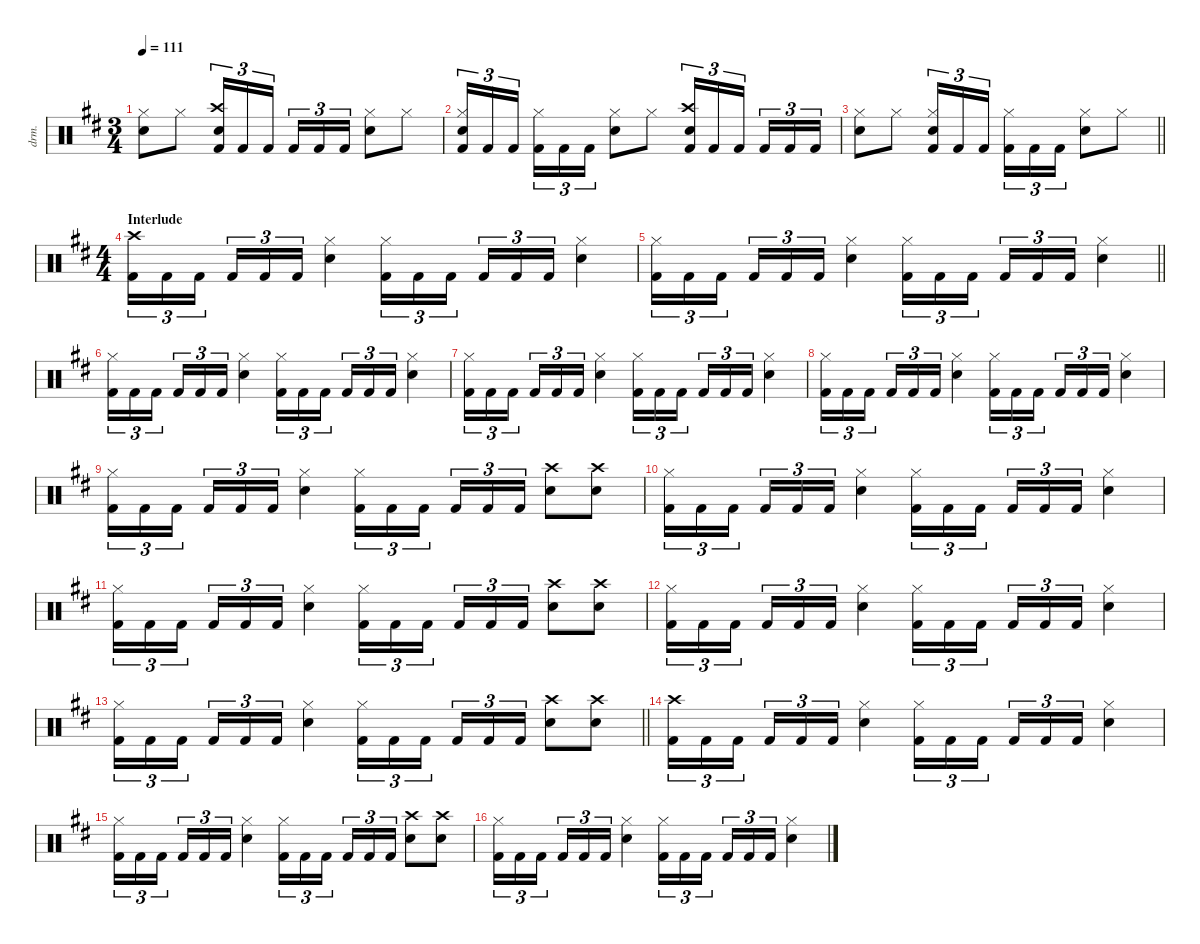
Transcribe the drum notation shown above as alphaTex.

\defaultSystemsLayout 4
\hideDynamics
\bracketExtendMode nobrackets
\otherSystemsTrackNameOrientation horizontal
\track ("Lars Ulrich" "drm.") {defaultSystemsLayout 4 instrument percussion}
\staff {score}
\articulation defaults
\ts (3 4)
\tempo 111
\clef neutral
\ks bminor
("Hi-Hat (closed)"{acc forcenatural} "Snare (hit) 2"{acc forcenatural}).8{dy f beam Down} "Hi-Hat (closed)"{acc forcenatural}.8{beam Down} ("Crash high (hit)"{acc forcenatural} "Snare (hit) 2"{acc forcenatural} "Kick (hit) 2"{acc forcenatural}).16{tu (3 2) beam Up} "Kick (hit) 2"{acc forcenatural}.16{tu (3 2) beam Up} "Kick (hit) 2"{acc forcenatural}.16{tu (3 2) beam Up} "Kick (hit) 2"{acc forcenatural}.16{tu (3 2) beam Up} "Kick (hit) 2"{acc forcenatural}.16{tu (3 2) beam Up} "Kick (hit) 2"{acc forcenatural}.16{tu (3 2) beam Up} ("Hi-Hat (closed)"{acc forcenatural} "Snare (hit) 2"{acc forcenatural}).8{beam Down} "Hi-Hat (closed)"{acc forcenatural}.8{beam Down} |
("Hi-Hat (closed)"{acc forcenatural} "Snare (hit) 2"{acc forcenatural} "Kick (hit) 2"{acc forcenatural}).16{tu (3 2) beam Up} "Kick (hit) 2"{acc forcenatural}.16{tu (3 2) beam Up} "Kick (hit) 2"{acc forcenatural}.16{tu (3 2) beam Up} ("Hi-Hat (closed)"{acc forcenatural} "Kick (hit) 2"{acc forcenatural}).16{tu (3 2) beam Down} "Kick (hit) 2"{acc forcenatural}.16{tu (3 2) beam Down} "Kick (hit) 2"{acc forcenatural}.16{tu (3 2) beam Down} ("Hi-Hat (closed)"{acc forcenatural} "Snare (hit) 2"{acc forcenatural}).8{beam Down} "Hi-Hat (closed)"{acc forcenatural}.8{beam Down} ("Crash high (hit)"{acc forcenatural} "Snare (hit) 2"{acc forcenatural} "Kick (hit) 2"{acc forcenatural}).16{tu (3 2) beam Up} "Kick (hit) 2"{acc forcenatural}.16{tu (3 2) beam Up} "Kick (hit) 2"{acc forcenatural}.16{tu (3 2) beam Up} "Kick (hit) 2"{acc forcenatural}.16{tu (3 2) beam Up} "Kick (hit) 2"{acc forcenatural}.16{tu (3 2) beam Up} "Kick (hit) 2"{acc forcenatural}.16{tu (3 2) beam Up} |
\barLineRight lightlight
("Hi-Hat (closed)"{acc forcenatural} "Snare (hit) 2"{acc forcenatural}).8{beam Down} "Hi-Hat (closed)"{acc forcenatural}.8{beam Down} ("Hi-Hat (closed)"{acc forcenatural} "Snare (hit) 2"{acc forcenatural} "Kick (hit) 2"{acc forcenatural}).16{tu (3 2) beam Up} "Kick (hit) 2"{acc forcenatural}.16{tu (3 2) beam Up} "Kick (hit) 2"{acc forcenatural}.16{tu (3 2) beam Up} ("Hi-Hat (closed)"{acc forcenatural} "Kick (hit) 2"{acc forcenatural}).16{tu (3 2) beam Down} "Kick (hit) 2"{acc forcenatural}.16{tu (3 2) beam Down} "Kick (hit) 2"{acc forcenatural}.16{tu (3 2) beam Down} ("Hi-Hat (closed)"{acc forcenatural} "Snare (hit) 2"{acc forcenatural}).8{beam Down} "Hi-Hat (closed)"{acc forcenatural}.8{beam Down} |
\ts (4 4)
\beaming (8 2 2 2 2)
\section ("" "Interlude")
("Crash high (hit)"{acc forcenatural} "Kick (hit) 2"{acc forcenatural}).16{tu (3 2) beam Down} "Kick (hit) 2"{acc forcenatural}.16{tu (3 2) beam Down} "Kick (hit) 2"{acc forcenatural}.16{tu (3 2) beam Down} "Kick (hit) 2"{acc forcenatural}.16{tu (3 2) beam Up} "Kick (hit) 2"{acc forcenatural}.16{tu (3 2) beam Up} "Kick (hit) 2"{acc forcenatural}.16{tu (3 2) beam Up} ("Hi-Hat (closed)"{acc forcenatural} "Snare (hit) 2"{acc forcenatural}).4{beam Down} ("Hi-Hat (closed)"{acc forcenatural} "Kick (hit) 2"{acc forcenatural}).16{tu (3 2) beam Down} "Kick (hit) 2"{acc forcenatural}.16{tu (3 2) beam Down} "Kick (hit) 2"{acc forcenatural}.16{tu (3 2) beam Down} "Kick (hit) 2"{acc forcenatural}.16{tu (3 2) beam Up} "Kick (hit) 2"{acc forcenatural}.16{tu (3 2) beam Up} "Kick (hit) 2"{acc forcenatural}.16{tu (3 2) beam Up} ("Hi-Hat (closed)"{acc forcenatural} "Snare (hit) 2"{acc forcenatural}).4{beam Down} |
\barLineRight lightlight
("Hi-Hat (closed)"{acc forcenatural} "Kick (hit) 2"{acc forcenatural}).16{tu (3 2) beam Down} "Kick (hit) 2"{acc forcenatural}.16{tu (3 2) beam Down} "Kick (hit) 2"{acc forcenatural}.16{tu (3 2) beam Down} "Kick (hit) 2"{acc forcenatural}.16{tu (3 2) beam Up} "Kick (hit) 2"{acc forcenatural}.16{tu (3 2) beam Up} "Kick (hit) 2"{acc forcenatural}.16{tu (3 2) beam Up} ("Hi-Hat (closed)"{acc forcenatural} "Snare (hit) 2"{acc forcenatural}).4{beam Down} ("Hi-Hat (closed)"{acc forcenatural} "Kick (hit) 2"{acc forcenatural}).16{tu (3 2) beam Down} "Kick (hit) 2"{acc forcenatural}.16{tu (3 2) beam Down} "Kick (hit) 2"{acc forcenatural}.16{tu (3 2) beam Down} "Kick (hit) 2"{acc forcenatural}.16{tu (3 2) beam Up} "Kick (hit) 2"{acc forcenatural}.16{tu (3 2) beam Up} "Kick (hit) 2"{acc forcenatural}.16{tu (3 2) beam Up} ("Hi-Hat (closed)"{acc forcenatural} "Snare (hit) 2"{acc forcenatural}).4{beam Down} |
("Hi-Hat (closed)"{acc forcenatural} "Kick (hit) 2"{acc forcenatural}).16{tu (3 2) beam Down} "Kick (hit) 2"{acc forcenatural}.16{tu (3 2) beam Down} "Kick (hit) 2"{acc forcenatural}.16{tu (3 2) beam Down} "Kick (hit) 2"{acc forcenatural}.16{tu (3 2) beam Up} "Kick (hit) 2"{acc forcenatural}.16{tu (3 2) beam Up} "Kick (hit) 2"{acc forcenatural}.16{tu (3 2) beam Up} ("Hi-Hat (closed)"{acc forcenatural} "Snare (hit) 2"{acc forcenatural}).4{beam Down} ("Hi-Hat (closed)"{acc forcenatural} "Kick (hit) 2"{acc forcenatural}).16{tu (3 2) beam Down} "Kick (hit) 2"{acc forcenatural}.16{tu (3 2) beam Down} "Kick (hit) 2"{acc forcenatural}.16{tu (3 2) beam Down} "Kick (hit) 2"{acc forcenatural}.16{tu (3 2) beam Up} "Kick (hit) 2"{acc forcenatural}.16{tu (3 2) beam Up} "Kick (hit) 2"{acc forcenatural}.16{tu (3 2) beam Up} ("Hi-Hat (closed)"{acc forcenatural} "Snare (hit) 2"{acc forcenatural}).4{beam Down} |
("Hi-Hat (closed)"{acc forcenatural} "Kick (hit) 2"{acc forcenatural}).16{tu (3 2) beam Down} "Kick (hit) 2"{acc forcenatural}.16{tu (3 2) beam Down} "Kick (hit) 2"{acc forcenatural}.16{tu (3 2) beam Down} "Kick (hit) 2"{acc forcenatural}.16{tu (3 2) beam Up} "Kick (hit) 2"{acc forcenatural}.16{tu (3 2) beam Up} "Kick (hit) 2"{acc forcenatural}.16{tu (3 2) beam Up} ("Hi-Hat (closed)"{acc forcenatural} "Snare (hit) 2"{acc forcenatural}).4{beam Down} ("Hi-Hat (closed)"{acc forcenatural} "Kick (hit) 2"{acc forcenatural}).16{tu (3 2) beam Down} "Kick (hit) 2"{acc forcenatural}.16{tu (3 2) beam Down} "Kick (hit) 2"{acc forcenatural}.16{tu (3 2) beam Down} "Kick (hit) 2"{acc forcenatural}.16{tu (3 2) beam Up} "Kick (hit) 2"{acc forcenatural}.16{tu (3 2) beam Up} "Kick (hit) 2"{acc forcenatural}.16{tu (3 2) beam Up} ("Hi-Hat (closed)"{acc forcenatural} "Snare (hit) 2"{acc forcenatural}).4{beam Down} |
("Hi-Hat (closed)"{acc forcenatural} "Kick (hit) 2"{acc forcenatural}).16{tu (3 2) beam Down} "Kick (hit) 2"{acc forcenatural}.16{tu (3 2) beam Down} "Kick (hit) 2"{acc forcenatural}.16{tu (3 2) beam Down} "Kick (hit) 2"{acc forcenatural}.16{tu (3 2) beam Up} "Kick (hit) 2"{acc forcenatural}.16{tu (3 2) beam Up} "Kick (hit) 2"{acc forcenatural}.16{tu (3 2) beam Up} ("Hi-Hat (closed)"{acc forcenatural} "Snare (hit) 2"{acc forcenatural}).4{beam Down} ("Hi-Hat (closed)"{acc forcenatural} "Kick (hit) 2"{acc forcenatural}).16{tu (3 2) beam Down} "Kick (hit) 2"{acc forcenatural}.16{tu (3 2) beam Down} "Kick (hit) 2"{acc forcenatural}.16{tu (3 2) beam Down} "Kick (hit) 2"{acc forcenatural}.16{tu (3 2) beam Up} "Kick (hit) 2"{acc forcenatural}.16{tu (3 2) beam Up} "Kick (hit) 2"{acc forcenatural}.16{tu (3 2) beam Up} ("Hi-Hat (closed)"{acc forcenatural} "Snare (hit) 2"{acc forcenatural}).4{beam Down} |
("Hi-Hat (closed)"{acc forcenatural} "Kick (hit) 2"{acc forcenatural}).16{tu (3 2) beam Down} "Kick (hit) 2"{acc forcenatural}.16{tu (3 2) beam Down} "Kick (hit) 2"{acc forcenatural}.16{tu (3 2) beam Down} "Kick (hit) 2"{acc forcenatural}.16{tu (3 2) beam Up} "Kick (hit) 2"{acc forcenatural}.16{tu (3 2) beam Up} "Kick (hit) 2"{acc forcenatural}.16{tu (3 2) beam Up} ("Hi-Hat (closed)"{acc forcenatural} "Snare (hit) 2"{acc forcenatural}).4{beam Down} ("Hi-Hat (closed)"{acc forcenatural} "Kick (hit) 2"{acc forcenatural}).16{tu (3 2) beam Down} "Kick (hit) 2"{acc forcenatural}.16{tu (3 2) beam Down} "Kick (hit) 2"{acc forcenatural}.16{tu (3 2) beam Down} "Kick (hit) 2"{acc forcenatural}.16{tu (3 2) beam Up} "Kick (hit) 2"{acc forcenatural}.16{tu (3 2) beam Up} "Kick (hit) 2"{acc forcenatural}.16{tu (3 2) beam Up} ("Crash high (hit)"{acc forcenatural} "Snare (hit) 2"{acc forcenatural}).8{beam Down} ("Crash high (hit)"{acc forcenatural} "Snare (hit) 2"{acc forcenatural}).8{beam Down} |
("Hi-Hat (closed)"{acc forcenatural} "Kick (hit) 2"{acc forcenatural}).16{tu (3 2) beam Down} "Kick (hit) 2"{acc forcenatural}.16{tu (3 2) beam Down} "Kick (hit) 2"{acc forcenatural}.16{tu (3 2) beam Down} "Kick (hit) 2"{acc forcenatural}.16{tu (3 2) beam Up} "Kick (hit) 2"{acc forcenatural}.16{tu (3 2) beam Up} "Kick (hit) 2"{acc forcenatural}.16{tu (3 2) beam Up} ("Hi-Hat (closed)"{acc forcenatural} "Snare (hit) 2"{acc forcenatural}).4{beam Down} ("Hi-Hat (closed)"{acc forcenatural} "Kick (hit) 2"{acc forcenatural}).16{tu (3 2) beam Down} "Kick (hit) 2"{acc forcenatural}.16{tu (3 2) beam Down} "Kick (hit) 2"{acc forcenatural}.16{tu (3 2) beam Down} "Kick (hit) 2"{acc forcenatural}.16{tu (3 2) beam Up} "Kick (hit) 2"{acc forcenatural}.16{tu (3 2) beam Up} "Kick (hit) 2"{acc forcenatural}.16{tu (3 2) beam Up} ("Hi-Hat (closed)"{acc forcenatural} "Snare (hit) 2"{acc forcenatural}).4{beam Down} |
("Hi-Hat (closed)"{acc forcenatural} "Kick (hit) 2"{acc forcenatural}).16{tu (3 2) beam Down} "Kick (hit) 2"{acc forcenatural}.16{tu (3 2) beam Down} "Kick (hit) 2"{acc forcenatural}.16{tu (3 2) beam Down} "Kick (hit) 2"{acc forcenatural}.16{tu (3 2) beam Up} "Kick (hit) 2"{acc forcenatural}.16{tu (3 2) beam Up} "Kick (hit) 2"{acc forcenatural}.16{tu (3 2) beam Up} ("Hi-Hat (closed)"{acc forcenatural} "Snare (hit) 2"{acc forcenatural}).4{beam Down} ("Hi-Hat (closed)"{acc forcenatural} "Kick (hit) 2"{acc forcenatural}).16{tu (3 2) beam Down} "Kick (hit) 2"{acc forcenatural}.16{tu (3 2) beam Down} "Kick (hit) 2"{acc forcenatural}.16{tu (3 2) beam Down} "Kick (hit) 2"{acc forcenatural}.16{tu (3 2) beam Up} "Kick (hit) 2"{acc forcenatural}.16{tu (3 2) beam Up} "Kick (hit) 2"{acc forcenatural}.16{tu (3 2) beam Up} ("Crash high (hit)"{acc forcenatural} "Snare (hit) 2"{acc forcenatural}).8{beam Down} ("Crash high (hit)"{acc forcenatural} "Snare (hit) 2"{acc forcenatural}).8{beam Down} |
("Hi-Hat (closed)"{acc forcenatural} "Kick (hit) 2"{acc forcenatural}).16{tu (3 2) beam Down} "Kick (hit) 2"{acc forcenatural}.16{tu (3 2) beam Down} "Kick (hit) 2"{acc forcenatural}.16{tu (3 2) beam Down} "Kick (hit) 2"{acc forcenatural}.16{tu (3 2) beam Up} "Kick (hit) 2"{acc forcenatural}.16{tu (3 2) beam Up} "Kick (hit) 2"{acc forcenatural}.16{tu (3 2) beam Up} ("Hi-Hat (closed)"{acc forcenatural} "Snare (hit) 2"{acc forcenatural}).4{beam Down} ("Hi-Hat (closed)"{acc forcenatural} "Kick (hit) 2"{acc forcenatural}).16{tu (3 2) beam Down} "Kick (hit) 2"{acc forcenatural}.16{tu (3 2) beam Down} "Kick (hit) 2"{acc forcenatural}.16{tu (3 2) beam Down} "Kick (hit) 2"{acc forcenatural}.16{tu (3 2) beam Up} "Kick (hit) 2"{acc forcenatural}.16{tu (3 2) beam Up} "Kick (hit) 2"{acc forcenatural}.16{tu (3 2) beam Up} ("Hi-Hat (closed)"{acc forcenatural} "Snare (hit) 2"{acc forcenatural}).4{beam Down} |
\barLineRight lightlight
("Hi-Hat (closed)"{acc forcenatural} "Kick (hit) 2"{acc forcenatural}).16{tu (3 2) beam Down} "Kick (hit) 2"{acc forcenatural}.16{tu (3 2) beam Down} "Kick (hit) 2"{acc forcenatural}.16{tu (3 2) beam Down} "Kick (hit) 2"{acc forcenatural}.16{tu (3 2) beam Up} "Kick (hit) 2"{acc forcenatural}.16{tu (3 2) beam Up} "Kick (hit) 2"{acc forcenatural}.16{tu (3 2) beam Up} ("Hi-Hat (closed)"{acc forcenatural} "Snare (hit) 2"{acc forcenatural}).4{beam Down} ("Hi-Hat (closed)"{acc forcenatural} "Kick (hit) 2"{acc forcenatural}).16{tu (3 2) beam Down} "Kick (hit) 2"{acc forcenatural}.16{tu (3 2) beam Down} "Kick (hit) 2"{acc forcenatural}.16{tu (3 2) beam Down} "Kick (hit) 2"{acc forcenatural}.16{tu (3 2) beam Up} "Kick (hit) 2"{acc forcenatural}.16{tu (3 2) beam Up} "Kick (hit) 2"{acc forcenatural}.16{tu (3 2) beam Up} ("Crash high (hit)"{acc forcenatural} "Snare (hit) 2"{acc forcenatural}).8{beam Down} ("Crash high (hit)"{acc forcenatural} "Snare (hit) 2"{acc forcenatural}).8{beam Down} |
("Crash high (hit)"{acc forcenatural} "Kick (hit) 2"{acc forcenatural}).16{tu (3 2) beam Down} "Kick (hit) 2"{acc forcenatural}.16{tu (3 2) beam Down} "Kick (hit) 2"{acc forcenatural}.16{tu (3 2) beam Down} "Kick (hit) 2"{acc forcenatural}.16{tu (3 2) beam Up} "Kick (hit) 2"{acc forcenatural}.16{tu (3 2) beam Up} "Kick (hit) 2"{acc forcenatural}.16{tu (3 2) beam Up} ("Hi-Hat (closed)"{acc forcenatural} "Snare (hit) 2"{acc forcenatural}).4{beam Down} ("Hi-Hat (closed)"{acc forcenatural} "Kick (hit) 2"{acc forcenatural}).16{tu (3 2) beam Down} "Kick (hit) 2"{acc forcenatural}.16{tu (3 2) beam Down} "Kick (hit) 2"{acc forcenatural}.16{tu (3 2) beam Down} "Kick (hit) 2"{acc forcenatural}.16{tu (3 2) beam Up} "Kick (hit) 2"{acc forcenatural}.16{tu (3 2) beam Up} "Kick (hit) 2"{acc forcenatural}.16{tu (3 2) beam Up} ("Hi-Hat (closed)"{acc forcenatural} "Snare (hit) 2"{acc forcenatural}).4{beam Down} |
("Hi-Hat (closed)"{acc forcenatural} "Kick (hit) 2"{acc forcenatural}).16{tu (3 2) beam Down} "Kick (hit) 2"{acc forcenatural}.16{tu (3 2) beam Down} "Kick (hit) 2"{acc forcenatural}.16{tu (3 2) beam Down} "Kick (hit) 2"{acc forcenatural}.16{tu (3 2) beam Up} "Kick (hit) 2"{acc forcenatural}.16{tu (3 2) beam Up} "Kick (hit) 2"{acc forcenatural}.16{tu (3 2) beam Up} ("Hi-Hat (closed)"{acc forcenatural} "Snare (hit) 2"{acc forcenatural}).4{beam Down} ("Hi-Hat (closed)"{acc forcenatural} "Kick (hit) 2"{acc forcenatural}).16{tu (3 2) beam Down} "Kick (hit) 2"{acc forcenatural}.16{tu (3 2) beam Down} "Kick (hit) 2"{acc forcenatural}.16{tu (3 2) beam Down} "Kick (hit) 2"{acc forcenatural}.16{tu (3 2) beam Up} "Kick (hit) 2"{acc forcenatural}.16{tu (3 2) beam Up} "Kick (hit) 2"{acc forcenatural}.16{tu (3 2) beam Up} ("Crash high (hit)"{acc forcenatural} "Snare (hit) 2"{acc forcenatural}).8{beam Down} ("Crash high (hit)"{acc forcenatural} "Snare (hit) 2"{acc forcenatural}).8{beam Down} |
("Hi-Hat (closed)"{acc forcenatural} "Kick (hit) 2"{acc forcenatural}).16{tu (3 2) beam Down} "Kick (hit) 2"{acc forcenatural}.16{tu (3 2) beam Down} "Kick (hit) 2"{acc forcenatural}.16{tu (3 2) beam Down} "Kick (hit) 2"{acc forcenatural}.16{tu (3 2) beam Up} "Kick (hit) 2"{acc forcenatural}.16{tu (3 2) beam Up} "Kick (hit) 2"{acc forcenatural}.16{tu (3 2) beam Up} ("Hi-Hat (closed)"{acc forcenatural} "Snare (hit) 2"{acc forcenatural}).4{beam Down} ("Hi-Hat (closed)"{acc forcenatural} "Kick (hit) 2"{acc forcenatural}).16{tu (3 2) beam Down} "Kick (hit) 2"{acc forcenatural}.16{tu (3 2) beam Down} "Kick (hit) 2"{acc forcenatural}.16{tu (3 2) beam Down} "Kick (hit) 2"{acc forcenatural}.16{tu (3 2) beam Up} "Kick (hit) 2"{acc forcenatural}.16{tu (3 2) beam Up} "Kick (hit) 2"{acc forcenatural}.16{tu (3 2) beam Up} ("Hi-Hat (closed)"{acc forcenatural} "Snare (hit) 2"{acc forcenatural}).4{beam Down}
